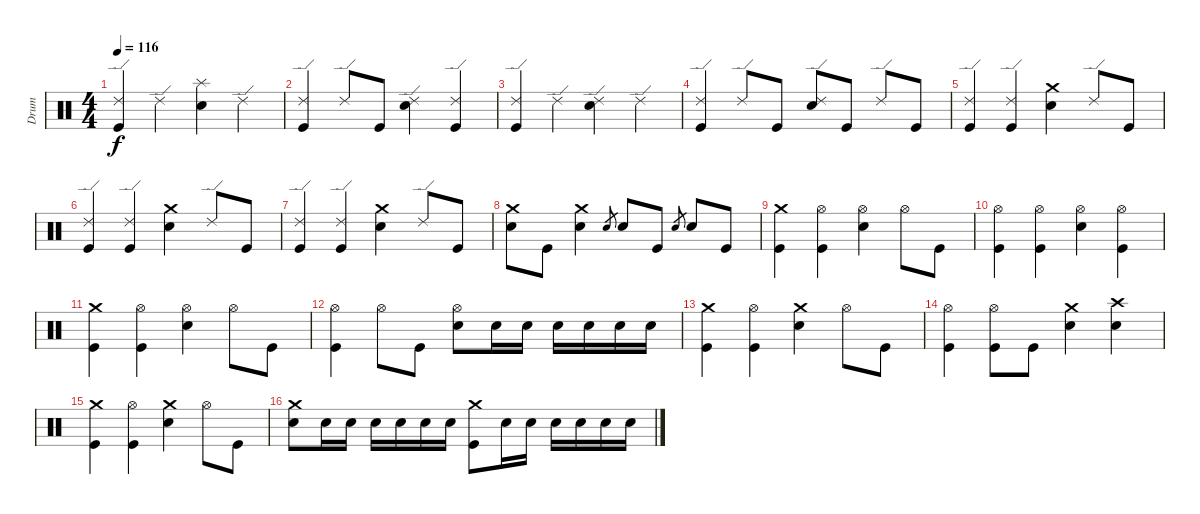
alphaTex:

\track ("Drum" "Drum") {instrument percussion}
\staff {score}
\articulation defaults
\ts (4 4)
\tempo 116
\clef neutral
\ks c
("Kick (hit)" "Ride (edge) 2").4{dy f} "Ride (edge) 2".4 ("Electric Snare (hit)" "Splash (hit)").4 "Ride (edge) 2".4 |
("Kick (hit)" "Ride (edge) 2").4 "Ride (edge) 2".8 "Kick (hit)".8 ("Electric Snare (hit)" "Ride (edge) 2").4 ("Kick (hit)" "Ride (edge) 2").4 |
("Kick (hit)" "Ride (edge) 2").4 "Ride (edge) 2".4 ("Electric Snare (hit)" "Ride (edge) 2").4 "Ride (edge) 2".4 |
("Kick (hit)" "Ride (edge) 2").4 "Ride (edge) 2".8 "Kick (hit)".8 ("Electric Snare (hit)" "Ride (edge) 2").8 "Kick (hit)".8 "Ride (edge) 2".8 "Kick (hit)".8 |
("Kick (hit)" "Ride (edge) 2").4 ("Kick (hit)" "Ride (edge) 2").4 ("Electric Snare (hit)" "Crash medium (hit)").4 "Ride (edge) 2".8 "Kick (hit)".8 |
("Kick (hit)" "Ride (edge) 2").4 ("Kick (hit)" "Ride (edge) 2").4 ("Electric Snare (hit)" "Crash medium (hit)").4 "Ride (edge) 2".8 "Kick (hit)".8 |
("Kick (hit)" "Ride (edge) 2").4 ("Kick (hit)" "Ride (edge) 2").4 ("Electric Snare (hit)" "Crash medium (hit)").4 "Ride (edge) 2".8 "Kick (hit)".8 |
("Electric Snare (hit)" "Crash medium (hit)").8 "Kick (hit)".8 ("Electric Snare (hit)" "Crash medium (hit)").4 "Electric Snare (hit)".8{gr} "Electric Snare (hit)".8 "Kick (hit)".8 "Electric Snare (hit)".8{gr} "Electric Snare (hit)".8 "Kick (hit)".8 |
("Kick (hit)" "Crash medium (hit)").4 ("Kick (hit)" "Hi-Hat (open)").4 ("Electric Snare (hit)" "Hi-Hat (open)").4 "Hi-Hat (open)".8 "Kick (hit)".8 |
("Kick (hit)" "Hi-Hat (open)").4 ("Kick (hit)" "Hi-Hat (open)").4 ("Electric Snare (hit)" "Hi-Hat (open)").4 ("Kick (hit)" "Hi-Hat (open)").4 |
("Kick (hit)" "Crash medium (hit)").4 ("Kick (hit)" "Hi-Hat (open)").4 ("Electric Snare (hit)" "Hi-Hat (open)").4 "Hi-Hat (open)".8 "Kick (hit)".8 |
("Kick (hit)" "Hi-Hat (open)").4 "Hi-Hat (open)".8 "Kick (hit)".8 ("Electric Snare (hit)" "Hi-Hat (open)").8 "Electric Snare (hit)".16 "Electric Snare (hit)".16 "Electric Snare (hit)".16 "Electric Snare (hit)".16 "Electric Snare (hit)".16 "Electric Snare (hit)".16 |
("Kick (hit)" "Crash medium (hit)").4 ("Kick (hit)" "Hi-Hat (open)").4 ("Electric Snare (hit)" "Crash medium (hit)").4 "Hi-Hat (open)".8 "Kick (hit)".8 |
("Kick (hit)" "Hi-Hat (open)").4 ("Kick (hit)" "Hi-Hat (open)").8 "Kick (hit)".8 ("Electric Snare (hit)" "Crash medium (hit)").4 ("Electric Snare (hit)" "Crash high (hit)").4 |
("Kick (hit)" "Crash medium (hit)").4 ("Kick (hit)" "Hi-Hat (open)").4 ("Electric Snare (hit)" "Crash medium (hit)").4 "Hi-Hat (open)".8 "Kick (hit)".8 |
("Electric Snare (hit)" "Crash medium (hit)").8 "Electric Snare (hit)".16 "Electric Snare (hit)".16 "Electric Snare (hit)".16 "Electric Snare (hit)".16 "Electric Snare (hit)".16 "Electric Snare (hit)".16 ("Kick (hit)" "Crash medium (hit)").8 "Electric Snare (hit)".16 "Electric Snare (hit)".16 "Electric Snare (hit)".16 "Electric Snare (hit)".16 "Electric Snare (hit)".16 "Electric Snare (hit)".16
